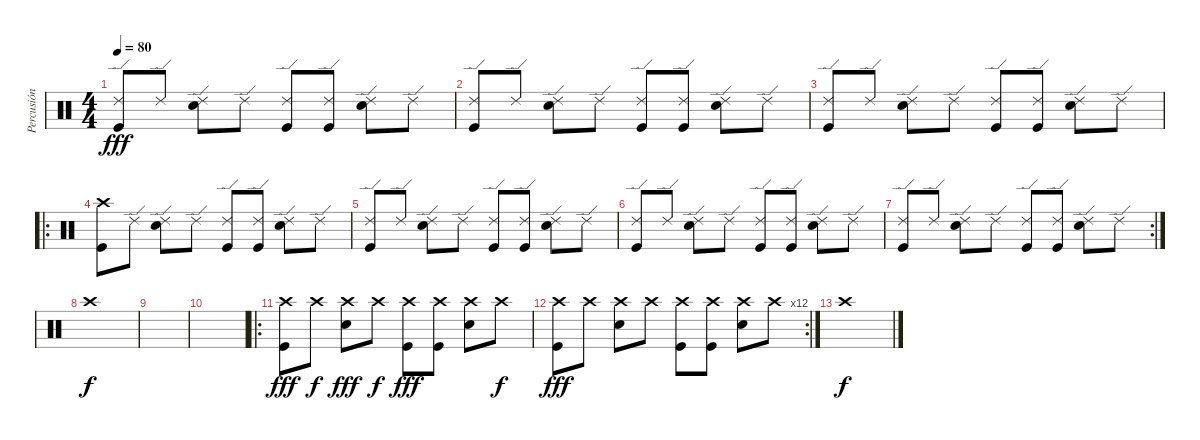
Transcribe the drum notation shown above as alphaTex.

\track ("Percusión" "Percusión") {instrument percussion}
\staff {score}
\articulation defaults
\ts (4 4)
\tempo 80
\clef neutral
\ks c
("Ride (edge) 2" "Kick (hit)").8{dy fff} "Ride (edge) 2".8 ("Ride (edge) 2" "Electric Snare (hit)").8 "Ride (edge) 2".8 ("Ride (edge) 2" "Kick (hit)").8 ("Ride (edge) 2" "Kick (hit)").8 ("Ride (edge) 2" "Electric Snare (hit)").8 "Ride (edge) 2".8 |
("Ride (edge) 2" "Kick (hit)").8 "Ride (edge) 2".8 ("Ride (edge) 2" "Electric Snare (hit)").8 "Ride (edge) 2".8 ("Ride (edge) 2" "Kick (hit)").8 ("Ride (edge) 2" "Kick (hit)").8 ("Ride (edge) 2" "Electric Snare (hit)").8 "Ride (edge) 2".8 |
("Ride (edge) 2" "Kick (hit)").8 "Ride (edge) 2".8 ("Ride (edge) 2" "Electric Snare (hit)").8 "Ride (edge) 2".8 ("Ride (edge) 2" "Kick (hit)").8 ("Ride (edge) 2" "Kick (hit)").8 ("Ride (edge) 2" "Electric Snare (hit)").8 "Ride (edge) 2".8 |
\ro
("Crash high (hit)" "Kick (hit)").8 "Ride (edge) 2".8 ("Ride (edge) 2" "Electric Snare (hit)").8 "Ride (edge) 2".8 ("Ride (edge) 2" "Kick (hit)").8 ("Ride (edge) 2" "Kick (hit)").8 ("Ride (edge) 2" "Electric Snare (hit)").8 "Ride (edge) 2".8 |
("Ride (edge) 2" "Kick (hit)").8 "Ride (edge) 2".8 ("Ride (edge) 2" "Electric Snare (hit)").8 "Ride (edge) 2".8 ("Ride (edge) 2" "Kick (hit)").8 ("Ride (edge) 2" "Kick (hit)").8 ("Ride (edge) 2" "Electric Snare (hit)").8 "Ride (edge) 2".8 |
("Ride (edge) 2" "Kick (hit)").8 "Ride (edge) 2".8 ("Ride (edge) 2" "Electric Snare (hit)").8 "Ride (edge) 2".8 ("Ride (edge) 2" "Kick (hit)").8 ("Ride (edge) 2" "Kick (hit)").8 ("Ride (edge) 2" "Electric Snare (hit)").8 "Ride (edge) 2".8 |
\rc 2
("Ride (edge) 2" "Kick (hit)").8 "Ride (edge) 2".8 ("Ride (edge) 2" "Electric Snare (hit)").8 "Ride (edge) 2".8 ("Ride (edge) 2" "Kick (hit)").8 ("Ride (edge) 2" "Kick (hit)").8 ("Ride (edge) 2" "Electric Snare (hit)").8 "Ride (edge) 2".8 |
"Crash high (hit)".1{dy f} |
|
|
\ro
("Crash high (hit)" "Kick (hit)").8{dy fff} "Crash high (hit)".8{dy f} ("Crash high (hit)" "Electric Snare (hit)").8{dy fff} "Crash high (hit)".8{dy f} ("Crash high (hit)" "Kick (hit)").8{dy fff} ("Crash high (hit)" "Kick (hit)").8 ("Crash high (hit)" "Electric Snare (hit)").8 "Crash high (hit)".8{dy f} |
\rc 12
("Crash high (hit)" "Kick (hit)").8{dy fff} "Crash high (hit)".8 ("Crash high (hit)" "Electric Snare (hit)").8 "Crash high (hit)".8 ("Crash high (hit)" "Kick (hit)").8 ("Crash high (hit)" "Kick (hit)").8 ("Crash high (hit)" "Electric Snare (hit)").8 "Crash high (hit)".8 |
"Crash high (hit)".1{dy f}
